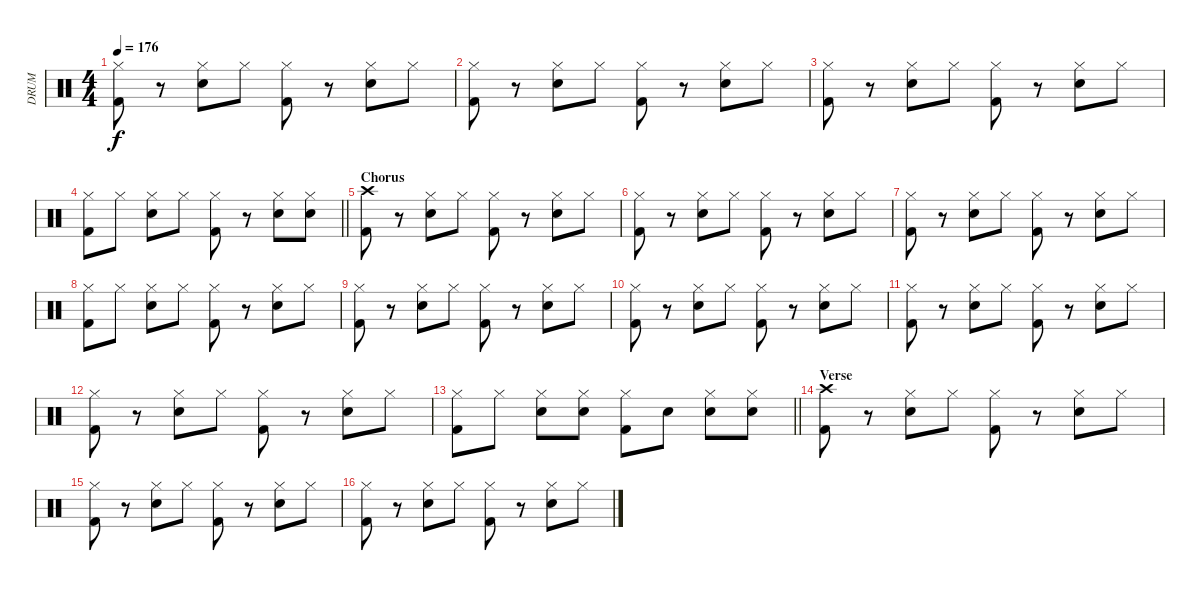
\track ("DRUM" "DRUM") {instrument percussion}
\staff {score}
\articulation defaults
\ts (4 4)
\tempo 176
\clef neutral
\ks c
("Hi-Hat (closed)" "Kick (hit) 2").8{dy f} r.8 ("Hi-Hat (closed)" "Electric Snare (hit)").8 "Hi-Hat (closed)".8 ("Hi-Hat (closed)" "Kick (hit) 2").8 r.8 ("Hi-Hat (closed)" "Electric Snare (hit)").8 "Hi-Hat (closed)".8 |
("Hi-Hat (closed)" "Kick (hit) 2").8 r.8 ("Hi-Hat (closed)" "Electric Snare (hit)").8 "Hi-Hat (closed)".8 ("Hi-Hat (closed)" "Kick (hit) 2").8 r.8 ("Hi-Hat (closed)" "Electric Snare (hit)").8 "Hi-Hat (closed)".8 |
("Hi-Hat (closed)" "Kick (hit) 2").8 r.8 ("Hi-Hat (closed)" "Electric Snare (hit)").8 "Hi-Hat (closed)".8 ("Hi-Hat (closed)" "Kick (hit) 2").8 r.8 ("Hi-Hat (closed)" "Electric Snare (hit)").8 "Hi-Hat (closed)".8 |
\barLineRight lightlight
("Hi-Hat (closed)" "Kick (hit) 2").8 "Hi-Hat (closed)".8 ("Hi-Hat (closed)" "Electric Snare (hit)").8 "Hi-Hat (closed)".8 ("Hi-Hat (closed)" "Kick (hit) 2").8 r.8 ("Hi-Hat (closed)" "Electric Snare (hit)").8 ("Hi-Hat (closed)" "Electric Snare (hit)").8 |
\section ("" "Chorus")
("Crash high (hit)" "Kick (hit) 2").8 r.8 ("Hi-Hat (closed)" "Electric Snare (hit)").8 "Hi-Hat (closed)".8 ("Hi-Hat (closed)" "Kick (hit) 2").8 r.8 ("Hi-Hat (closed)" "Electric Snare (hit)").8 "Hi-Hat (closed)".8 |
("Hi-Hat (closed)" "Kick (hit) 2").8 r.8 ("Hi-Hat (closed)" "Electric Snare (hit)").8 "Hi-Hat (closed)".8 ("Hi-Hat (closed)" "Kick (hit) 2").8 r.8 ("Hi-Hat (closed)" "Electric Snare (hit)").8 "Hi-Hat (closed)".8 |
("Hi-Hat (closed)" "Kick (hit) 2").8 r.8 ("Hi-Hat (closed)" "Electric Snare (hit)").8 "Hi-Hat (closed)".8 ("Hi-Hat (closed)" "Kick (hit) 2").8 r.8 ("Hi-Hat (closed)" "Electric Snare (hit)").8 "Hi-Hat (closed)".8 |
("Hi-Hat (closed)" "Kick (hit) 2").8 "Hi-Hat (closed)".8 ("Hi-Hat (closed)" "Electric Snare (hit)").8 "Hi-Hat (closed)".8 ("Hi-Hat (closed)" "Kick (hit) 2").8 r.8 ("Hi-Hat (closed)" "Electric Snare (hit)").8 "Hi-Hat (closed)".8 |
("Hi-Hat (closed)" "Kick (hit) 2").8 r.8 ("Hi-Hat (closed)" "Electric Snare (hit)").8 "Hi-Hat (closed)".8 ("Hi-Hat (closed)" "Kick (hit) 2").8 r.8 ("Hi-Hat (closed)" "Electric Snare (hit)").8 "Hi-Hat (closed)".8 |
("Hi-Hat (closed)" "Kick (hit) 2").8 r.8 ("Hi-Hat (closed)" "Electric Snare (hit)").8 "Hi-Hat (closed)".8 ("Hi-Hat (closed)" "Kick (hit) 2").8 r.8 ("Hi-Hat (closed)" "Electric Snare (hit)").8 "Hi-Hat (closed)".8 |
("Hi-Hat (closed)" "Kick (hit) 2").8 r.8 ("Hi-Hat (closed)" "Electric Snare (hit)").8 "Hi-Hat (closed)".8 ("Hi-Hat (closed)" "Kick (hit) 2").8 r.8 ("Hi-Hat (closed)" "Electric Snare (hit)").8 "Hi-Hat (closed)".8 |
("Hi-Hat (closed)" "Kick (hit) 2").8 r.8 ("Hi-Hat (closed)" "Electric Snare (hit)").8 "Hi-Hat (closed)".8 ("Hi-Hat (closed)" "Kick (hit) 2").8 r.8 ("Hi-Hat (closed)" "Electric Snare (hit)").8 "Hi-Hat (closed)".8 |
\barLineRight lightlight
("Hi-Hat (closed)" "Kick (hit) 2").8 "Hi-Hat (closed)".8 ("Hi-Hat (closed)" "Electric Snare (hit)").8 ("Hi-Hat (closed)" "Electric Snare (hit)").8 ("Hi-Hat (closed)" "Kick (hit) 2").8 "Electric Snare (hit)".8 ("Hi-Hat (closed)" "Electric Snare (hit)").8 ("Hi-Hat (closed)" "Electric Snare (hit)").8 |
\section ("" "Verse")
("Crash high (hit)" "Kick (hit) 2").8 r.8 ("Hi-Hat (closed)" "Electric Snare (hit)").8 "Hi-Hat (closed)".8 ("Hi-Hat (closed)" "Kick (hit) 2").8 r.8 ("Hi-Hat (closed)" "Electric Snare (hit)").8 "Hi-Hat (closed)".8 |
("Hi-Hat (closed)" "Kick (hit) 2").8 r.8 ("Hi-Hat (closed)" "Electric Snare (hit)").8 "Hi-Hat (closed)".8 ("Hi-Hat (closed)" "Kick (hit) 2").8 r.8 ("Hi-Hat (closed)" "Electric Snare (hit)").8 "Hi-Hat (closed)".8 |
("Hi-Hat (closed)" "Kick (hit) 2").8 r.8 ("Hi-Hat (closed)" "Electric Snare (hit)").8 "Hi-Hat (closed)".8 ("Hi-Hat (closed)" "Kick (hit) 2").8 r.8 ("Hi-Hat (closed)" "Electric Snare (hit)").8 "Hi-Hat (closed)".8
